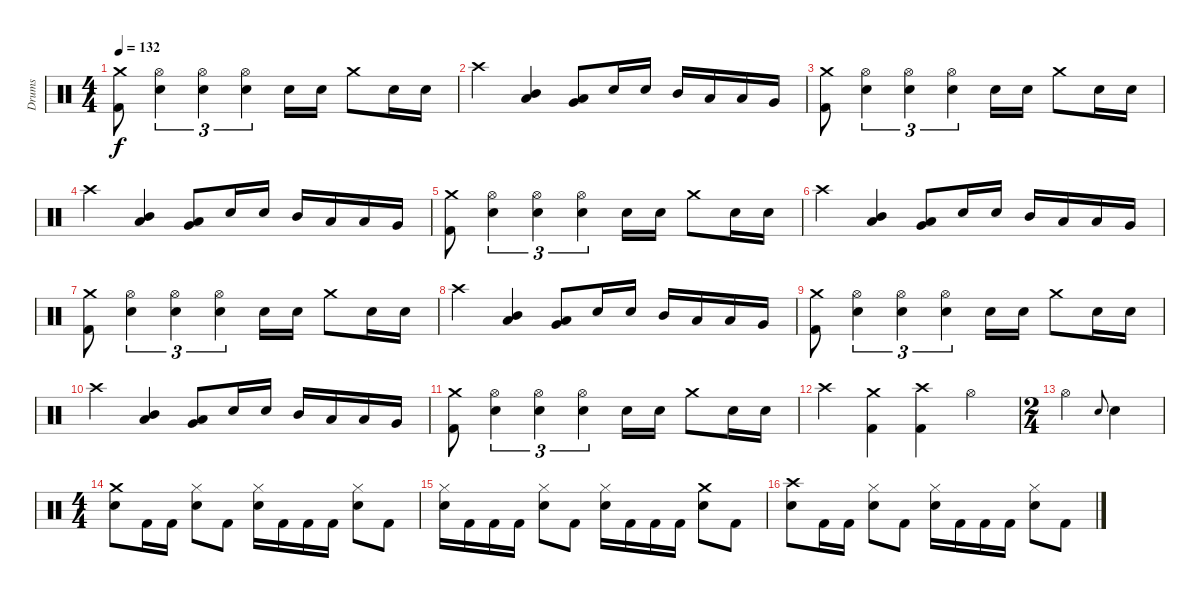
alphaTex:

\track ("Drums" "Drums") {instrument percussion}
\staff {score}
\articulation defaults
\ts (4 4)
\tempo 132
\clef neutral
\ks c
("Crash medium (hit)" "Kick (hit) 2").8{dy f} ("Hi-Hat (open)" "Snare (hit) 2").4{tu (3 2)} ("Hi-Hat (open)" "Snare (hit) 2").4{tu (3 2)} ("Hi-Hat (open)" "Snare (hit) 2").4{tu (3 2)} "Snare (hit) 2".16 "Snare (hit) 2".16 "Crash medium (hit)".8 "Snare (hit) 2".16 "Snare (hit) 2".16 |
"Crash high (hit)".4 ("Mid Tom (hit)" "Low Tom (hit)").4 ("Low Tom (hit)" "Very Low Tom (hit)").8 "Snare (hit) 2".16 "Snare (hit) 2".16 "Mid Tom (hit)".16 "Low Tom (hit)".16 "Low Tom (hit)".16 "Very Low Tom (hit)".16 |
("Crash medium (hit)" "Kick (hit) 2").8 ("Hi-Hat (open)" "Snare (hit) 2").4{tu (3 2)} ("Hi-Hat (open)" "Snare (hit) 2").4{tu (3 2)} ("Hi-Hat (open)" "Snare (hit) 2").4{tu (3 2)} "Snare (hit) 2".16 "Snare (hit) 2".16 "Crash medium (hit)".8 "Snare (hit) 2".16 "Snare (hit) 2".16 |
"Crash high (hit)".4 ("Mid Tom (hit)" "Low Tom (hit)").4 ("Low Tom (hit)" "Very Low Tom (hit)").8 "Snare (hit) 2".16 "Snare (hit) 2".16 "Mid Tom (hit)".16 "Low Tom (hit)".16 "Low Tom (hit)".16 "Very Low Tom (hit)".16 |
("Crash medium (hit)" "Kick (hit) 2").8 ("Hi-Hat (open)" "Snare (hit) 2").4{tu (3 2)} ("Hi-Hat (open)" "Snare (hit) 2").4{tu (3 2)} ("Hi-Hat (open)" "Snare (hit) 2").4{tu (3 2)} "Snare (hit) 2".16 "Snare (hit) 2".16 "Crash medium (hit)".8 "Snare (hit) 2".16 "Snare (hit) 2".16 |
"Crash high (hit)".4 ("Mid Tom (hit)" "Low Tom (hit)").4 ("Low Tom (hit)" "Very Low Tom (hit)").8 "Snare (hit) 2".16 "Snare (hit) 2".16 "Mid Tom (hit)".16 "Low Tom (hit)".16 "Low Tom (hit)".16 "Very Low Tom (hit)".16 |
("Crash medium (hit)" "Kick (hit) 2").8 ("Hi-Hat (open)" "Snare (hit) 2").4{tu (3 2)} ("Hi-Hat (open)" "Snare (hit) 2").4{tu (3 2)} ("Hi-Hat (open)" "Snare (hit) 2").4{tu (3 2)} "Snare (hit) 2".16 "Snare (hit) 2".16 "Crash medium (hit)".8 "Snare (hit) 2".16 "Snare (hit) 2".16 |
"Crash high (hit)".4 ("Mid Tom (hit)" "Low Tom (hit)").4 ("Low Tom (hit)" "Very Low Tom (hit)").8 "Snare (hit) 2".16 "Snare (hit) 2".16 "Mid Tom (hit)".16 "Low Tom (hit)".16 "Low Tom (hit)".16 "Very Low Tom (hit)".16 |
("Crash medium (hit)" "Kick (hit) 2").8 ("Hi-Hat (open)" "Snare (hit) 2").4{tu (3 2)} ("Hi-Hat (open)" "Snare (hit) 2").4{tu (3 2)} ("Hi-Hat (open)" "Snare (hit) 2").4{tu (3 2)} "Snare (hit) 2".16 "Snare (hit) 2".16 "Crash medium (hit)".8 "Snare (hit) 2".16 "Snare (hit) 2".16 |
"Crash high (hit)".4 ("Mid Tom (hit)" "Low Tom (hit)").4 ("Low Tom (hit)" "Very Low Tom (hit)").8 "Snare (hit) 2".16 "Snare (hit) 2".16 "Mid Tom (hit)".16 "Low Tom (hit)".16 "Low Tom (hit)".16 "Very Low Tom (hit)".16 |
("Crash medium (hit)" "Kick (hit) 2").8 ("Hi-Hat (open)" "Snare (hit) 2").4{tu (3 2)} ("Hi-Hat (open)" "Snare (hit) 2").4{tu (3 2)} ("Hi-Hat (open)" "Snare (hit) 2").4{tu (3 2)} "Snare (hit) 2".16 "Snare (hit) 2".16 "Crash medium (hit)".8 "Snare (hit) 2".16 "Snare (hit) 2".16 |
"Crash high (hit)".4 ("Crash medium (hit)" "Kick (hit) 2").4 ("Crash high (hit)" "Kick (hit) 2").4 "Hi-Hat (open)".4 |
\ts (2 4)
"Hi-Hat (open)".4 "Snare (hit) 2".8{gr onbeat} "Snare (hit) 2".4 |
\ts (4 4)
("Crash medium (hit)" "Snare (hit) 2").8 "Kick (hit) 2".16 "Kick (hit) 2".16 ("Hi-Hat (closed)" "Snare (hit) 2").8 "Kick (hit) 2".8 ("Hi-Hat (closed)" "Snare (hit) 2").16 "Kick (hit) 2".16 "Kick (hit) 2".16 "Kick (hit) 2".16 ("Hi-Hat (closed)" "Snare (hit) 2").8 "Kick (hit) 2".8 |
("Hi-Hat (closed)" "Snare (hit) 2").16 "Kick (hit) 2".16 "Kick (hit) 2".16 "Kick (hit) 2".16 ("Hi-Hat (closed)" "Snare (hit) 2").8 "Kick (hit) 2".8 ("Hi-Hat (closed)" "Snare (hit) 2").16 "Kick (hit) 2".16 "Kick (hit) 2".16 "Kick (hit) 2".16 ("Crash medium (hit)" "Snare (hit) 2").8 "Kick (hit) 2".8 |
("Crash high (hit)" "Snare (hit) 2").8 "Kick (hit) 2".16 "Kick (hit) 2".16 ("Hi-Hat (closed)" "Snare (hit) 2").8 "Kick (hit) 2".8 ("Hi-Hat (closed)" "Snare (hit) 2").16 "Kick (hit) 2".16 "Kick (hit) 2".16 "Kick (hit) 2".16 ("Hi-Hat (closed)" "Snare (hit) 2").8 "Kick (hit) 2".8
